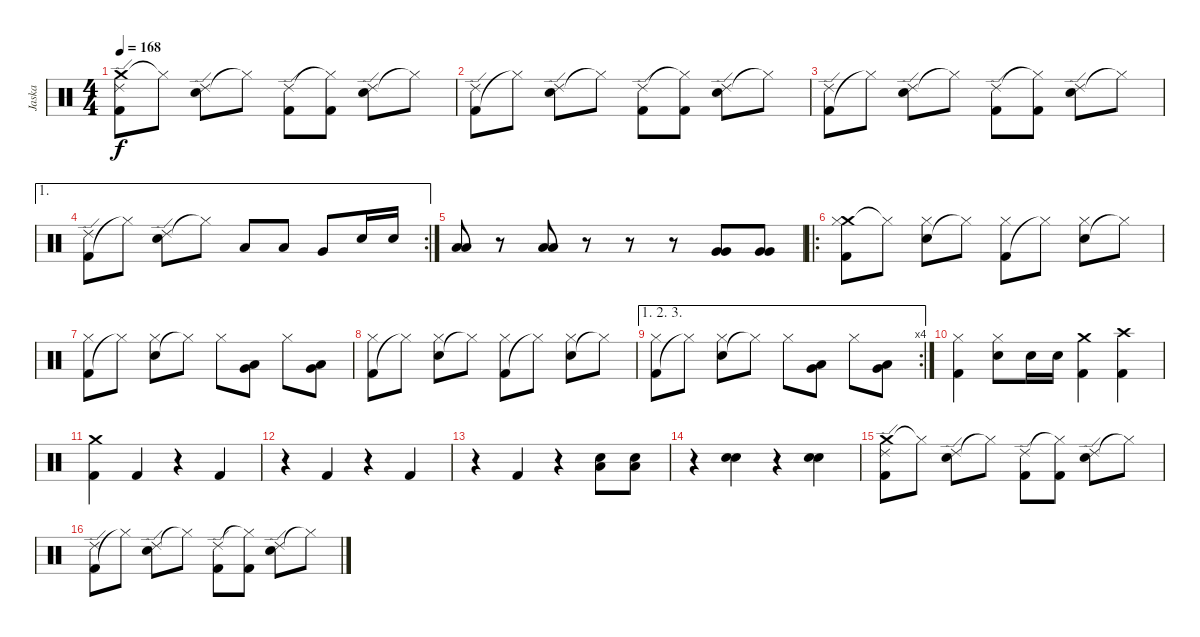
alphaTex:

\track ("Jaska" "Jaska") {instrument percussion}
\staff {score}
\articulation defaults
\ts (4 4)
\tempo 168
\clef neutral
\ks c
("Crash medium (hit)" "Kick (hit) 2" "Ride (edge) 2").8{dy f} "Hi-Hat (closed)"{t}.8 ("Electric Snare (hit)" "Ride (edge) 2").8 "Hi-Hat (closed)"{t}.8 ("Kick (hit) 2" "Ride (edge) 2").8 ("Kick (hit) 2" "Hi-Hat (closed)"{t}).8 ("Electric Snare (hit)" "Ride (edge) 2").8 "Hi-Hat (closed)"{t}.8 |
("Kick (hit) 2" "Ride (edge) 2").8 "Hi-Hat (closed)"{t}.8 ("Electric Snare (hit)" "Ride (edge) 2").8 "Hi-Hat (closed)"{t}.8 ("Kick (hit) 2" "Ride (edge) 2").8 ("Kick (hit) 2" "Hi-Hat (closed)"{t}).8 ("Electric Snare (hit)" "Ride (edge) 2").8 "Hi-Hat (closed)"{t}.8 |
("Kick (hit) 2" "Ride (edge) 2").8 "Hi-Hat (closed)"{t}.8 ("Electric Snare (hit)" "Ride (edge) 2").8 "Hi-Hat (closed)"{t}.8 ("Kick (hit) 2" "Ride (edge) 2").8 ("Kick (hit) 2" "Hi-Hat (closed)"{t}).8 ("Electric Snare (hit)" "Ride (edge) 2").8 "Hi-Hat (closed)"{t}.8 |
\ae 1
\rc 2
("Kick (hit) 2" "Ride (edge) 2").8 "Hi-Hat (closed)"{t}.8 ("Electric Snare (hit)" "Ride (edge) 2").8 "Hi-Hat (closed)"{t}.8 "Low Tom (hit)".8 "Low Tom (hit)".8 "Very Low Tom (hit)".8 "Electric Snare (hit)".16 "Electric Snare (hit)".16 |
("Low Tom (hit)" "Low Tom (hit)").8 r.8 ("Low Tom (hit)" "Low Tom (hit)").8 r.8 r.8 r.8 ("Very Low Tom (hit)" "Very Low Tom (hit)").8 ("Very Low Tom (hit)" "Very Low Tom (hit)").8 |
\ro
("Crash medium (hit)" "Kick (hit) 2" "Hi-Hat (closed)").8 "Hi-Hat (closed)"{t}.8 ("Electric Snare (hit)" "Hi-Hat (closed)").8 "Hi-Hat (closed)"{t}.8 ("Kick (hit) 2" "Hi-Hat (closed)").8 "Hi-Hat (closed)"{t}.8 ("Electric Snare (hit)" "Hi-Hat (closed)").8 "Hi-Hat (closed)"{t}.8 |
("Kick (hit) 2" "Hi-Hat (closed)").8 "Hi-Hat (closed)"{t}.8 ("Electric Snare (hit)" "Hi-Hat (closed)").8 "Hi-Hat (closed)"{t}.8 "Hi-Hat (closed)".8 ("Low Tom (hit)" "Very Low Tom (hit)").8 "Hi-Hat (closed)".8 ("Low Tom (hit)" "Very Low Tom (hit)").8 |
("Kick (hit) 2" "Hi-Hat (closed)").8 "Hi-Hat (closed)"{t}.8 ("Electric Snare (hit)" "Hi-Hat (closed)").8 "Hi-Hat (closed)"{t}.8 ("Kick (hit) 2" "Hi-Hat (closed)").8 "Hi-Hat (closed)"{t}.8 ("Electric Snare (hit)" "Hi-Hat (closed)").8 "Hi-Hat (closed)"{t}.8 |
\ae (1 2 3)
\rc 4
("Kick (hit) 2" "Hi-Hat (closed)").8 "Hi-Hat (closed)"{t}.8 ("Electric Snare (hit)" "Hi-Hat (closed)").8 "Hi-Hat (closed)"{t}.8 "Hi-Hat (closed)".8 ("Low Tom (hit)" "Very Low Tom (hit)").8 "Hi-Hat (closed)".8 ("Low Tom (hit)" "Very Low Tom (hit)").8 |
("Kick (hit) 2" "Hi-Hat (closed)").4 ("Electric Snare (hit)" "Hi-Hat (closed)").8 "Electric Snare (hit)".16 "Electric Snare (hit)".16 ("Crash medium (hit)" "Kick (hit) 2").4 ("Crash high (hit)" "Kick (hit) 2").4 |
("Kick (hit) 2" "Crash medium (hit)").4 "Kick (hit) 2".4 r.4 "Kick (hit) 2".4 |
r.4 "Kick (hit) 2".4 r.4 "Kick (hit) 2".4 |
r.4 "Kick (hit) 2".4 r.4 ("Low Tom (hit)" "Electric Snare (hit)").8 ("Low Tom (hit)" "Electric Snare (hit)").8 |
r.4 ("Electric Snare (hit)" "Electric Snare (hit)").4 r.4 ("Electric Snare (hit)" "Electric Snare (hit)").4 |
("Crash medium (hit)" "Kick (hit) 2" "Ride (edge) 2").8 "Hi-Hat (closed)"{t}.8 ("Electric Snare (hit)" "Ride (edge) 2").8 "Hi-Hat (closed)"{t}.8 ("Kick (hit) 2" "Ride (edge) 2").8 ("Kick (hit) 2" "Hi-Hat (closed)"{t}).8 ("Electric Snare (hit)" "Ride (edge) 2").8 "Hi-Hat (closed)"{t}.8 |
("Kick (hit) 2" "Ride (edge) 2").8 "Hi-Hat (closed)"{t}.8 ("Electric Snare (hit)" "Ride (edge) 2").8 "Hi-Hat (closed)"{t}.8 ("Kick (hit) 2" "Ride (edge) 2").8 ("Kick (hit) 2" "Hi-Hat (closed)"{t}).8 ("Electric Snare (hit)" "Ride (edge) 2").8 "Hi-Hat (closed)"{t}.8
